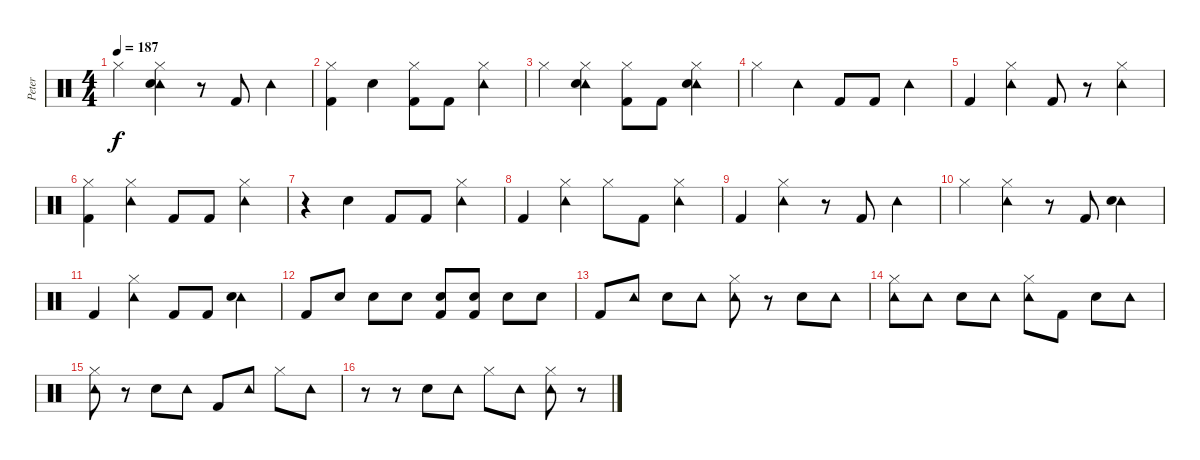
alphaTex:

\track ("Peter" "Peter") {instrument percussion}
\staff {score}
\articulation defaults
\ts (4 4)
\tempo 187
\clef neutral
\ks c "Hi-Hat (closed)".4{dy f}
("Hi-Hat (closed)" "Tambourine (hit)" "Electric Snare (hit)").4 r.8 "Kick (hit) 2".8 "Tambourine (hit)".4 |
("Hi-Hat (closed)" "Kick (hit) 2").4 "Electric Snare (hit)".4 ("Hi-Hat (closed)" "Kick (hit) 2").8 "Kick (hit) 2".8 ("Hi-Hat (closed)" "Tambourine (hit)").4 |
"Hi-Hat (closed)".4 ("Hi-Hat (closed)" "Tambourine (hit)" "Electric Snare (hit)").4 ("Hi-Hat (closed)" "Kick (hit) 2").8 "Kick (hit) 2".8 ("Hi-Hat (closed)" "Tambourine (hit)" "Electric Snare (hit)").4 |
"Hi-Hat (closed)".4 "Tambourine (hit)".4 "Kick (hit) 2".8 "Kick (hit) 2".8 "Tambourine (hit)".4 |
"Kick (hit) 2".4 ("Hi-Hat (closed)" "Tambourine (hit)").4 "Kick (hit) 2".8 r.8 ("Hi-Hat (closed)" "Tambourine (hit)").4 |
("Hi-Hat (closed)" "Kick (hit) 2").4 ("Hi-Hat (closed)" "Tambourine (hit)").4 "Kick (hit) 2".8 "Kick (hit) 2".8 ("Hi-Hat (closed)" "Tambourine (hit)").4 |
r.4 "Electric Snare (hit)".4 "Kick (hit) 2".8 "Kick (hit) 2".8 ("Hi-Hat (closed)" "Tambourine (hit)").4 |
"Kick (hit) 2".4 ("Hi-Hat (closed)" "Tambourine (hit)").4 "Hi-Hat (closed)".8 "Kick (hit) 2".8 ("Hi-Hat (closed)" "Tambourine (hit)").4 |
"Kick (hit) 2".4 ("Hi-Hat (closed)" "Tambourine (hit)").4 r.8 "Kick (hit) 2".8 "Tambourine (hit)".4 |
"Hi-Hat (closed)".4 ("Hi-Hat (closed)" "Tambourine (hit)").4 r.8 "Kick (hit) 2".8 ("Tambourine (hit)" "Electric Snare (hit)").4 |
"Kick (hit) 2".4 ("Hi-Hat (closed)" "Tambourine (hit)").4 "Kick (hit) 2".8 "Kick (hit) 2".8 ("Tambourine (hit)" "Electric Snare (hit)").4 |
"Kick (hit) 2".8 "Electric Snare (hit)".8 "Electric Snare (hit)".8 "Electric Snare (hit)".8 ("Electric Snare (hit)" "Kick (hit) 2").8 ("Electric Snare (hit)" "Kick (hit) 2").8 "Electric Snare (hit)".8 "Electric Snare (hit)".8 |
"Kick (hit) 2".8 "Tambourine (hit)".8 "Electric Snare (hit)".8 "Tambourine (hit)".8 ("Tambourine (hit)" "Hi-Hat (closed)").8 r.8 "Electric Snare (hit)".8 "Tambourine (hit)".8 |
("Tambourine (hit)" "Hi-Hat (closed)").8 "Tambourine (hit)".8 "Electric Snare (hit)".8 "Tambourine (hit)".8 ("Tambourine (hit)" "Hi-Hat (closed)").8 "Kick (hit) 2".8 "Electric Snare (hit)".8 "Tambourine (hit)".8 |
("Tambourine (hit)" "Hi-Hat (closed)").8 r.8 "Electric Snare (hit)".8 "Tambourine (hit)".8 "Kick (hit) 2".8 "Tambourine (hit)".8 "Hi-Hat (closed)".8 "Tambourine (hit)".8 |
r.8 r.8 "Electric Snare (hit)".8 "Tambourine (hit)".8 "Hi-Hat (closed)".8 "Tambourine (hit)".8 ("Tambourine (hit)" "Hi-Hat (closed)").8 r.8
